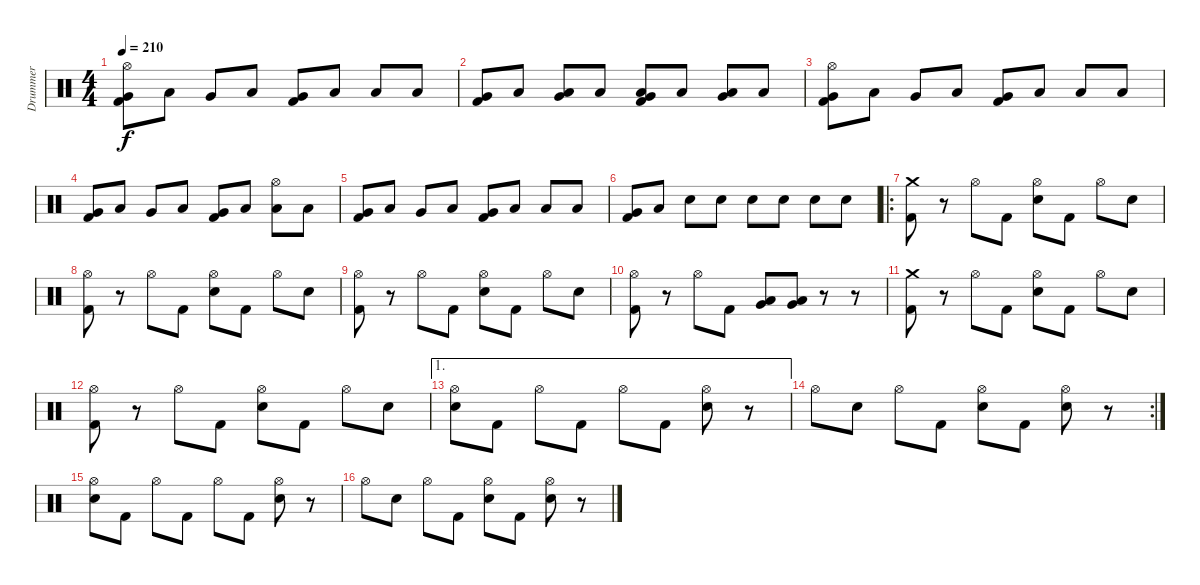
\track ("Drummer" "Drummer") {instrument percussion}
\staff {score}
\articulation defaults
\ts (4 4)
\tempo 210
\clef neutral
\ks c
("Hi-Hat (open)" "Very Low Tom (hit)" "Kick (hit) 2").8{dy f} "Low Tom (hit)".8 "Very Low Tom (hit)".8 "Low Floor Tom (hit)".8 ("Very Low Tom (hit)" "Kick (hit) 2").8 "Low Floor Tom (hit)".8 "Low Tom (hit)".8 "Low Floor Tom (hit)".8 |
("Very Low Tom (hit)" "Kick (hit) 2").8 "Low Tom (hit)".8 ("Low Tom (hit)" "Very Low Tom (hit)").8 "Low Floor Tom (hit)".8 ("Low Tom (hit)" "Very Low Tom (hit)" "Kick (hit) 2").8 "Low Floor Tom (hit)".8 ("Very Low Tom (hit)" "Low Tom (hit)").8 "Low Floor Tom (hit)".8 |
("Hi-Hat (open)" "Very Low Tom (hit)" "Kick (hit) 2").8 "Low Tom (hit)".8 "Very Low Tom (hit)".8 "Low Floor Tom (hit)".8 ("Very Low Tom (hit)" "Kick (hit) 2").8 "Low Floor Tom (hit)".8 "Low Tom (hit)".8 "Low Floor Tom (hit)".8 |
("Very Low Tom (hit)" "Kick (hit) 2").8 "Low Tom (hit)".8 "Very Low Tom (hit)".8 "Low Floor Tom (hit)".8 ("Very Low Tom (hit)" "Kick (hit) 2").8 "Low Floor Tom (hit)".8 ("Hi-Hat (open)" "Low Tom (hit)").8 "Low Floor Tom (hit)".8 |
("Very Low Tom (hit)" "Kick (hit) 2").8 "Low Tom (hit)".8 "Very Low Tom (hit)".8 "Low Floor Tom (hit)".8 ("Very Low Tom (hit)" "Kick (hit) 2").8 "Low Floor Tom (hit)".8 "Low Tom (hit)".8 "Low Floor Tom (hit)".8 |
("Very Low Tom (hit)" "Kick (hit) 2").8 "Low Tom (hit)".8 "Electric Snare (hit)".8 "Electric Snare (hit)".8 "Electric Snare (hit)".8 "Electric Snare (hit)".8 "Electric Snare (hit)".8 "Electric Snare (hit)".8 |
\ro
("Crash medium (hit)" "Kick (hit) 2").8 r.8 "Hi-Hat (open)".8 "Kick (hit) 2".8 ("Hi-Hat (open)" "Electric Snare (hit)").8 "Kick (hit) 2".8 "Hi-Hat (open)".8 "Electric Snare (hit)".8 |
("Hi-Hat (open)" "Kick (hit) 2").8 r.8 "Hi-Hat (open)".8 "Kick (hit) 2".8 ("Hi-Hat (open)" "Electric Snare (hit)").8 "Kick (hit) 2".8 "Hi-Hat (open)".8 "Electric Snare (hit)".8 |
("Hi-Hat (open)" "Kick (hit) 2").8 r.8 "Hi-Hat (open)".8 "Kick (hit) 2".8 ("Hi-Hat (open)" "Electric Snare (hit)").8 "Kick (hit) 2".8 "Hi-Hat (open)".8 "Electric Snare (hit)".8 |
("Hi-Hat (open)" "Kick (hit) 2").8 r.8 "Hi-Hat (open)".8 "Kick (hit) 2".8 ("Low Tom (hit)" "Very Low Tom (hit)").8 ("Low Tom (hit)" "Very Low Tom (hit)").8 r.8 r.8 |
("Crash medium (hit)" "Kick (hit) 2").8 r.8 "Hi-Hat (open)".8 "Kick (hit) 2".8 ("Hi-Hat (open)" "Electric Snare (hit)").8 "Kick (hit) 2".8 "Hi-Hat (open)".8 "Electric Snare (hit)".8 |
("Hi-Hat (open)" "Kick (hit) 2").8 r.8 "Hi-Hat (open)".8 "Kick (hit) 2".8 ("Hi-Hat (open)" "Electric Snare (hit)").8 "Kick (hit) 2".8 "Hi-Hat (open)".8 "Electric Snare (hit)".8 |
\ae 1
("Hi-Hat (open)" "Electric Snare (hit)").8 "Kick (hit) 2".8 "Hi-Hat (open)".8 "Kick (hit) 2".8 "Hi-Hat (open)".8 "Kick (hit) 2".8 ("Hi-Hat (open)" "Electric Snare (hit)").8 r.8 |
\rc 2 "Hi-Hat (open)".8 "Electric Snare (hit)".8 "Hi-Hat (open)".8 "Kick (hit) 2".8
("Hi-Hat (open)" "Electric Snare (hit)").8 "Kick (hit) 2".8 ("Hi-Hat (open)" "Electric Snare (hit)").8 r.8 |
("Hi-Hat (open)" "Electric Snare (hit)").8 "Kick (hit) 2".8 "Hi-Hat (open)".8 "Kick (hit) 2".8 "Hi-Hat (open)".8 "Kick (hit) 2".8 ("Hi-Hat (open)" "Electric Snare (hit)").8 r.8 |
"Hi-Hat (open)".8 "Electric Snare (hit)".8 "Hi-Hat (open)".8 "Kick (hit) 2".8 ("Hi-Hat (open)" "Electric Snare (hit)").8 "Kick (hit) 2".8 ("Hi-Hat (open)" "Electric Snare (hit)").8 r.8
